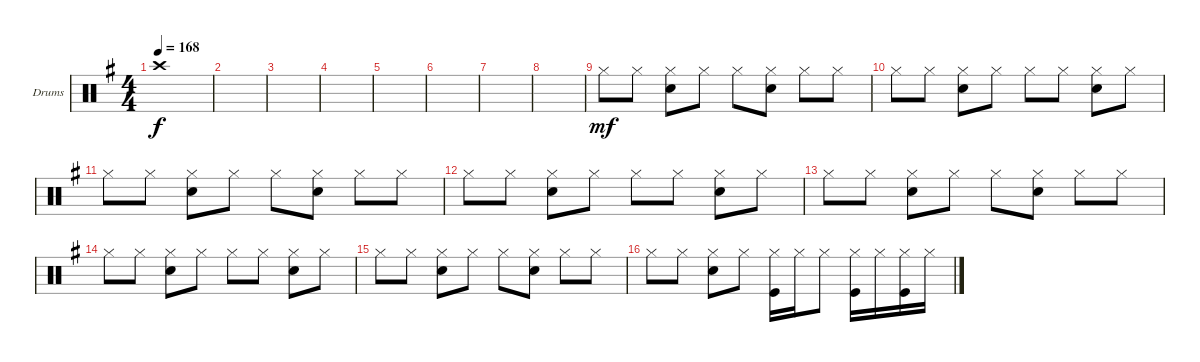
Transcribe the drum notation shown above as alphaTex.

\defaultSystemsLayout 4
\bracketExtendMode groupsimilarinstruments
\firstSystemTrackNameOrientation horizontal
\otherSystemsTrackNameOrientation horizontal
\track ("Drumkit" "Drums") {instrument percussion}
\staff {score}
\articulation defaults
\ts (4 4)
\tempo 168
\clef neutral
\ks eminor "Crash high (hit)".1{dy f}
|
|
|
|
|
|
|
|
"Hi-Hat (closed)".8{dy mf} "Hi-Hat (closed)".8 ("Hi-Hat (closed)" "Snare (hit) 2").8 "Hi-Hat (closed)".8 "Hi-Hat (closed)".8 ("Hi-Hat (closed)" "Snare (hit) 2").8 "Hi-Hat (closed)".8 "Hi-Hat (closed)".8 |
"Hi-Hat (closed)".8 "Hi-Hat (closed)".8 ("Hi-Hat (closed)" "Snare (hit) 2").8 "Hi-Hat (closed)".8 "Hi-Hat (closed)".8 "Hi-Hat (closed)".8 ("Hi-Hat (closed)" "Snare (hit) 2").8 "Hi-Hat (closed)".8 |
"Hi-Hat (closed)".8 "Hi-Hat (closed)".8 ("Hi-Hat (closed)" "Snare (hit) 2").8 "Hi-Hat (closed)".8 "Hi-Hat (closed)".8 ("Hi-Hat (closed)" "Snare (hit) 2").8 "Hi-Hat (closed)".8 "Hi-Hat (closed)".8 |
"Hi-Hat (closed)".8 "Hi-Hat (closed)".8 ("Hi-Hat (closed)" "Snare (hit) 2").8 "Hi-Hat (closed)".8 "Hi-Hat (closed)".8 "Hi-Hat (closed)".8 ("Hi-Hat (closed)" "Snare (hit) 2").8 "Hi-Hat (closed)".8 |
"Hi-Hat (closed)".8 "Hi-Hat (closed)".8 ("Hi-Hat (closed)" "Snare (hit) 2").8 "Hi-Hat (closed)".8 "Hi-Hat (closed)".8 ("Hi-Hat (closed)" "Snare (hit) 2").8 "Hi-Hat (closed)".8 "Hi-Hat (closed)".8 |
"Hi-Hat (closed)".8 "Hi-Hat (closed)".8 ("Hi-Hat (closed)" "Snare (hit) 2").8 "Hi-Hat (closed)".8 "Hi-Hat (closed)".8 "Hi-Hat (closed)".8 ("Hi-Hat (closed)" "Snare (hit) 2").8 "Hi-Hat (closed)".8 |
"Hi-Hat (closed)".8 "Hi-Hat (closed)".8 ("Hi-Hat (closed)" "Snare (hit) 2").8 "Hi-Hat (closed)".8 "Hi-Hat (closed)".8 ("Hi-Hat (closed)" "Snare (hit) 2").8 "Hi-Hat (closed)".8 "Hi-Hat (closed)".8 |
"Hi-Hat (closed)".8 "Hi-Hat (closed)".8 ("Hi-Hat (closed)" "Snare (hit) 2").8 "Hi-Hat (closed)".8 ("Hi-Hat (closed)" "Kick (hit)").16 "Hi-Hat (closed)".16 "Hi-Hat (closed)".8 ("Hi-Hat (closed)" "Kick (hit)").16 "Hi-Hat (closed)".16 ("Hi-Hat (closed)" "Kick (hit)").16 "Hi-Hat (closed)".16
